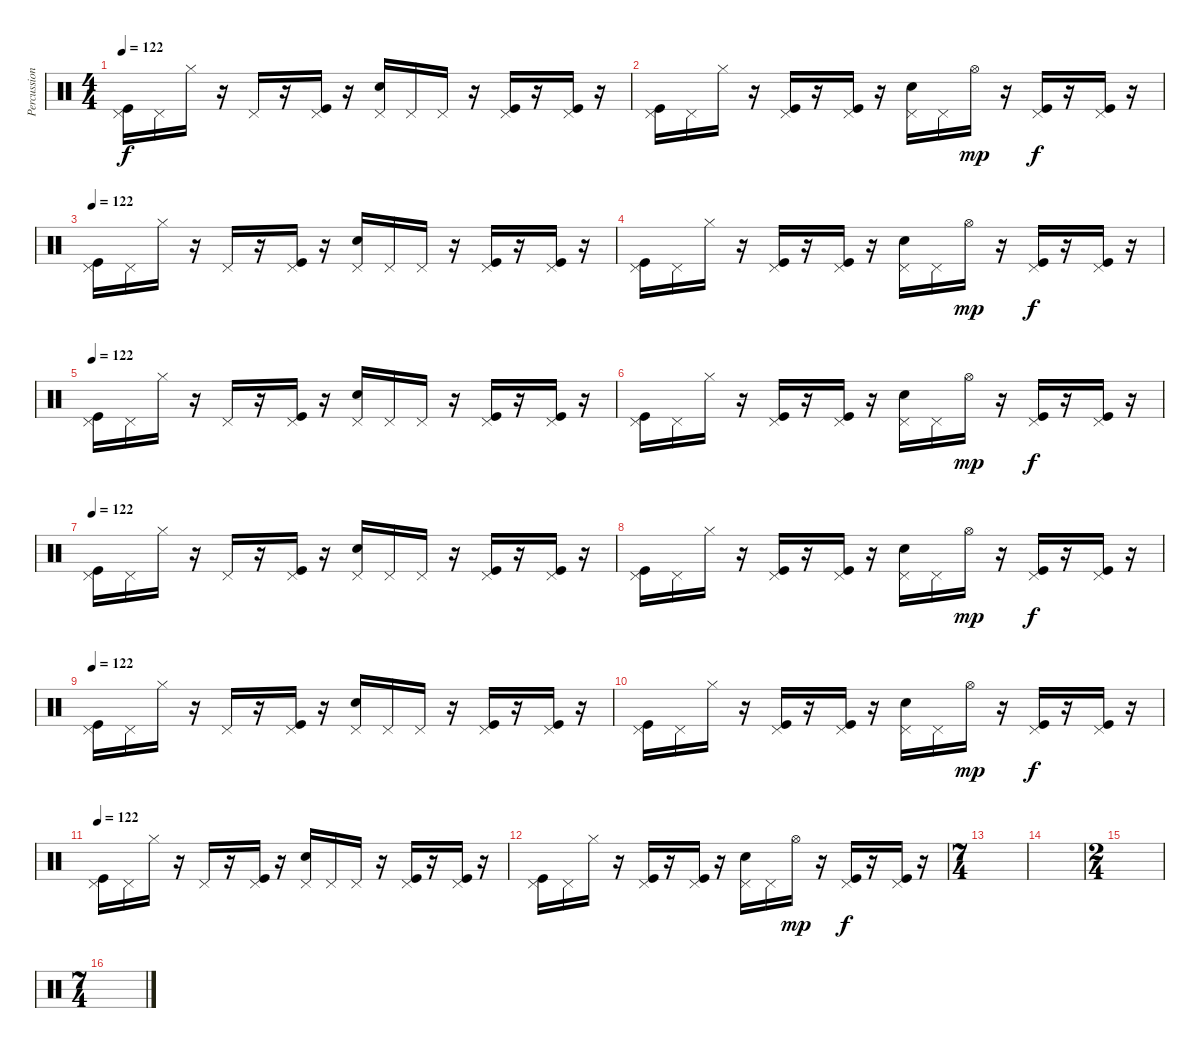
\track ("Percussions" "Percussion") {instrument percussion}
\staff {score}
\articulation defaults
\ts (4 4)
\tempo 122
\clef neutral
\ks c
("Pedal Hi-Hat (hit)" "Kick (hit)").16{dy f} "Pedal Hi-Hat (hit)".16 "Hi-Hat (closed)".16 r.16 "Pedal Hi-Hat (hit)".16 r.16 ("Pedal Hi-Hat (hit)" "Kick (hit)").16 r.16 ("Pedal Hi-Hat (hit)" "Electric Snare (hit)").16 "Pedal Hi-Hat (hit)".16 "Pedal Hi-Hat (hit)".16 r.16 ("Pedal Hi-Hat (hit)" "Kick (hit)").16 r.16 ("Pedal Hi-Hat (hit)" "Kick (hit)").16 r.16 |
("Pedal Hi-Hat (hit)" "Kick (hit)").16 "Pedal Hi-Hat (hit)".16 "Hi-Hat (closed)".16 r.16 ("Pedal Hi-Hat (hit)" "Kick (hit)").16 r.16 ("Pedal Hi-Hat (hit)" "Kick (hit)").16 r.16 ("Pedal Hi-Hat (hit)" "Electric Snare (hit)").16 "Pedal Hi-Hat (hit)".16 "Hi-Hat (open)".16{dy mp} r.16 ("Pedal Hi-Hat (hit)" "Kick (hit)").16{dy f} r.16 ("Pedal Hi-Hat (hit)" "Kick (hit)").16 r.16 |
\tempo 122
("Pedal Hi-Hat (hit)" "Kick (hit)").16 "Pedal Hi-Hat (hit)".16 "Hi-Hat (closed)".16 r.16 "Pedal Hi-Hat (hit)".16 r.16 ("Pedal Hi-Hat (hit)" "Kick (hit)").16 r.16 ("Pedal Hi-Hat (hit)" "Electric Snare (hit)").16 "Pedal Hi-Hat (hit)".16 "Pedal Hi-Hat (hit)".16 r.16 ("Pedal Hi-Hat (hit)" "Kick (hit)").16 r.16 ("Pedal Hi-Hat (hit)" "Kick (hit)").16 r.16 |
("Pedal Hi-Hat (hit)" "Kick (hit)").16 "Pedal Hi-Hat (hit)".16 "Hi-Hat (closed)".16 r.16 ("Pedal Hi-Hat (hit)" "Kick (hit)").16 r.16 ("Pedal Hi-Hat (hit)" "Kick (hit)").16 r.16 ("Pedal Hi-Hat (hit)" "Electric Snare (hit)").16 "Pedal Hi-Hat (hit)".16 "Hi-Hat (open)".16{dy mp} r.16 ("Pedal Hi-Hat (hit)" "Kick (hit)").16{dy f} r.16 ("Pedal Hi-Hat (hit)" "Kick (hit)").16 r.16 |
\tempo 122
("Pedal Hi-Hat (hit)" "Kick (hit)").16 "Pedal Hi-Hat (hit)".16 "Hi-Hat (closed)".16 r.16 "Pedal Hi-Hat (hit)".16 r.16 ("Pedal Hi-Hat (hit)" "Kick (hit)").16 r.16 ("Pedal Hi-Hat (hit)" "Electric Snare (hit)").16 "Pedal Hi-Hat (hit)".16 "Pedal Hi-Hat (hit)".16 r.16 ("Pedal Hi-Hat (hit)" "Kick (hit)").16 r.16 ("Pedal Hi-Hat (hit)" "Kick (hit)").16 r.16 |
("Pedal Hi-Hat (hit)" "Kick (hit)").16 "Pedal Hi-Hat (hit)".16 "Hi-Hat (closed)".16 r.16 ("Pedal Hi-Hat (hit)" "Kick (hit)").16 r.16 ("Pedal Hi-Hat (hit)" "Kick (hit)").16 r.16 ("Pedal Hi-Hat (hit)" "Electric Snare (hit)").16 "Pedal Hi-Hat (hit)".16 "Hi-Hat (open)".16{dy mp} r.16 ("Pedal Hi-Hat (hit)" "Kick (hit)").16{dy f} r.16 ("Pedal Hi-Hat (hit)" "Kick (hit)").16 r.16 |
\tempo 122
("Pedal Hi-Hat (hit)" "Kick (hit)").16 "Pedal Hi-Hat (hit)".16 "Hi-Hat (closed)".16 r.16 "Pedal Hi-Hat (hit)".16 r.16 ("Pedal Hi-Hat (hit)" "Kick (hit)").16 r.16 ("Pedal Hi-Hat (hit)" "Electric Snare (hit)").16 "Pedal Hi-Hat (hit)".16 "Pedal Hi-Hat (hit)".16 r.16 ("Pedal Hi-Hat (hit)" "Kick (hit)").16 r.16 ("Pedal Hi-Hat (hit)" "Kick (hit)").16 r.16 |
("Pedal Hi-Hat (hit)" "Kick (hit)").16 "Pedal Hi-Hat (hit)".16 "Hi-Hat (closed)".16 r.16 ("Pedal Hi-Hat (hit)" "Kick (hit)").16 r.16 ("Pedal Hi-Hat (hit)" "Kick (hit)").16 r.16 ("Pedal Hi-Hat (hit)" "Electric Snare (hit)").16 "Pedal Hi-Hat (hit)".16 "Hi-Hat (open)".16{dy mp} r.16 ("Pedal Hi-Hat (hit)" "Kick (hit)").16{dy f} r.16 ("Pedal Hi-Hat (hit)" "Kick (hit)").16 r.16 |
\tempo 122
("Pedal Hi-Hat (hit)" "Kick (hit)").16 "Pedal Hi-Hat (hit)".16 "Hi-Hat (closed)".16 r.16 "Pedal Hi-Hat (hit)".16 r.16 ("Pedal Hi-Hat (hit)" "Kick (hit)").16 r.16 ("Pedal Hi-Hat (hit)" "Electric Snare (hit)").16 "Pedal Hi-Hat (hit)".16 "Pedal Hi-Hat (hit)".16 r.16 ("Pedal Hi-Hat (hit)" "Kick (hit)").16 r.16 ("Pedal Hi-Hat (hit)" "Kick (hit)").16 r.16 |
("Pedal Hi-Hat (hit)" "Kick (hit)").16 "Pedal Hi-Hat (hit)".16 "Hi-Hat (closed)".16 r.16 ("Pedal Hi-Hat (hit)" "Kick (hit)").16 r.16 ("Pedal Hi-Hat (hit)" "Kick (hit)").16 r.16 ("Pedal Hi-Hat (hit)" "Electric Snare (hit)").16 "Pedal Hi-Hat (hit)".16 "Hi-Hat (open)".16{dy mp} r.16 ("Pedal Hi-Hat (hit)" "Kick (hit)").16{dy f} r.16 ("Pedal Hi-Hat (hit)" "Kick (hit)").16 r.16 |
\tempo 122
("Pedal Hi-Hat (hit)" "Kick (hit)").16 "Pedal Hi-Hat (hit)".16 "Hi-Hat (closed)".16 r.16 "Pedal Hi-Hat (hit)".16 r.16 ("Pedal Hi-Hat (hit)" "Kick (hit)").16 r.16 ("Pedal Hi-Hat (hit)" "Electric Snare (hit)").16 "Pedal Hi-Hat (hit)".16 "Pedal Hi-Hat (hit)".16 r.16 ("Pedal Hi-Hat (hit)" "Kick (hit)").16 r.16 ("Pedal Hi-Hat (hit)" "Kick (hit)").16 r.16 |
("Pedal Hi-Hat (hit)" "Kick (hit)").16 "Pedal Hi-Hat (hit)".16 "Hi-Hat (closed)".16 r.16 ("Pedal Hi-Hat (hit)" "Kick (hit)").16 r.16 ("Pedal Hi-Hat (hit)" "Kick (hit)").16 r.16 ("Pedal Hi-Hat (hit)" "Electric Snare (hit)").16 "Pedal Hi-Hat (hit)".16 "Hi-Hat (open)".16{dy mp} r.16 ("Pedal Hi-Hat (hit)" "Kick (hit)").16{dy f} r.16 ("Pedal Hi-Hat (hit)" "Kick (hit)").16 r.16 |
\ts (7 4)
|
|
\ts (2 4)
|
\ts (7 4)
